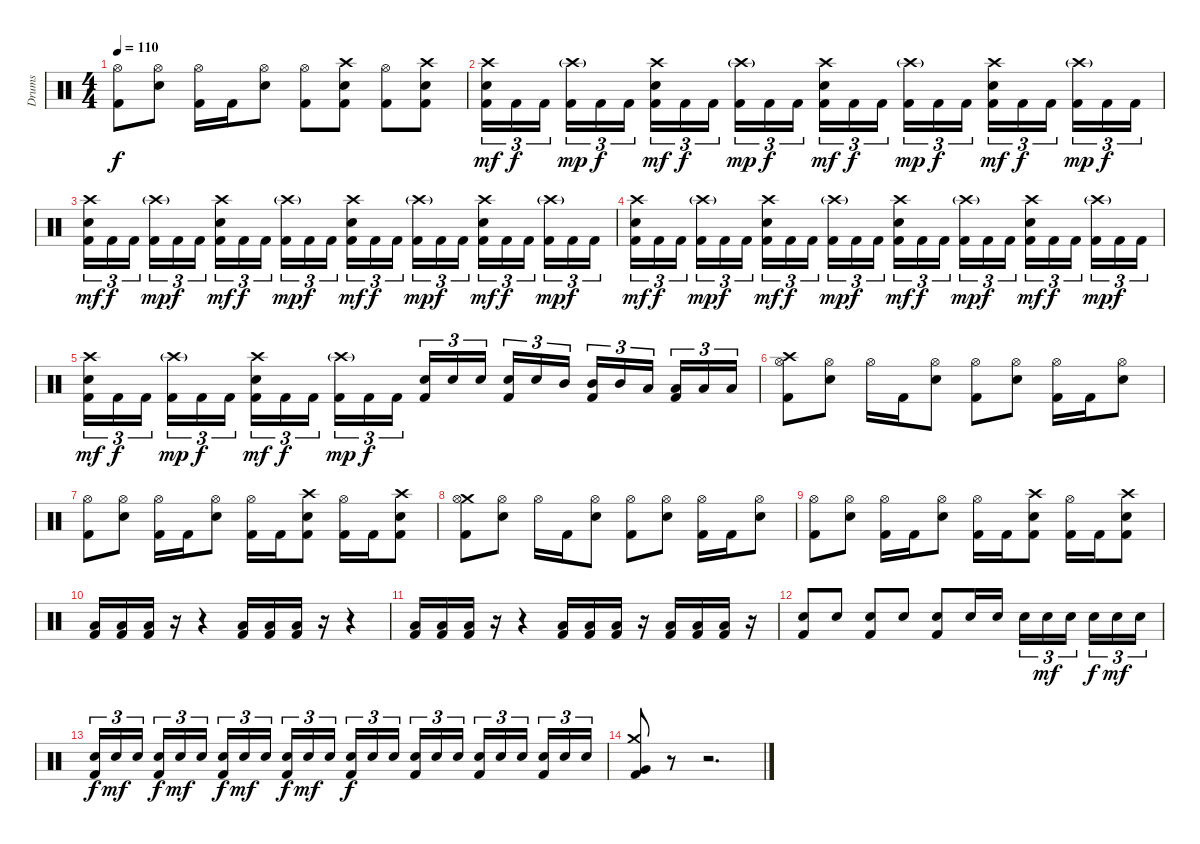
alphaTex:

\track ("Drums" "Drums") {instrument percussion}
\staff {score}
\articulation defaults
\ts (4 4)
\tempo 110
\clef neutral
\ks c
("Hi-Hat (open)" "Kick (hit) 2").8{dy f} ("Hi-Hat (open)" "Electric Snare (hit)").8 ("Hi-Hat (open)" "Kick (hit) 2").16 "Kick (hit) 2".16 ("Hi-Hat (open)" "Electric Snare (hit)").8 ("Hi-Hat (open)" "Kick (hit) 2").8 ("Crash high (hit)" "Electric Snare (hit)" "Kick (hit) 2").8 ("Hi-Hat (open)" "Kick (hit) 2").8 ("Crash high (hit)" "Electric Snare (hit)" "Kick (hit) 2").8 |
("Crash high (hit)" "Electric Snare (hit)" "Kick (hit) 2").16{tu (3 2) dy mf} "Kick (hit) 2".16{tu (3 2) dy f} "Kick (hit) 2".16{tu (3 2)} ("Crash high (hit)"{g} "Kick (hit) 2").16{tu (3 2) dy mp} "Kick (hit) 2".16{tu (3 2) dy f} "Kick (hit) 2".16{tu (3 2)} ("Crash high (hit)" "Electric Snare (hit)" "Kick (hit) 2").16{tu (3 2) dy mf} "Kick (hit) 2".16{tu (3 2) dy f} "Kick (hit) 2".16{tu (3 2)} ("Crash high (hit)"{g} "Kick (hit) 2").16{tu (3 2) dy mp} "Kick (hit) 2".16{tu (3 2) dy f} "Kick (hit) 2".16{tu (3 2)} ("Crash high (hit)" "Electric Snare (hit)" "Kick (hit) 2").16{tu (3 2) dy mf} "Kick (hit) 2".16{tu (3 2) dy f} "Kick (hit) 2".16{tu (3 2)} ("Crash high (hit)"{g} "Kick (hit) 2").16{tu (3 2) dy mp} "Kick (hit) 2".16{tu (3 2) dy f} "Kick (hit) 2".16{tu (3 2)} ("Crash high (hit)" "Electric Snare (hit)" "Kick (hit) 2").16{tu (3 2) dy mf} "Kick (hit) 2".16{tu (3 2) dy f} "Kick (hit) 2".16{tu (3 2)} ("Crash high (hit)"{g} "Kick (hit) 2").16{tu (3 2) dy mp} "Kick (hit) 2".16{tu (3 2) dy f} "Kick (hit) 2".16{tu (3 2)} |
("Crash high (hit)" "Electric Snare (hit)" "Kick (hit) 2").16{tu (3 2) dy mf} "Kick (hit) 2".16{tu (3 2) dy f} "Kick (hit) 2".16{tu (3 2)} ("Crash high (hit)"{g} "Kick (hit) 2").16{tu (3 2) dy mp} "Kick (hit) 2".16{tu (3 2) dy f} "Kick (hit) 2".16{tu (3 2)} ("Crash high (hit)" "Electric Snare (hit)" "Kick (hit) 2").16{tu (3 2) dy mf} "Kick (hit) 2".16{tu (3 2) dy f} "Kick (hit) 2".16{tu (3 2)} ("Crash high (hit)"{g} "Kick (hit) 2").16{tu (3 2) dy mp} "Kick (hit) 2".16{tu (3 2) dy f} "Kick (hit) 2".16{tu (3 2)} ("Crash high (hit)" "Electric Snare (hit)" "Kick (hit) 2").16{tu (3 2) dy mf} "Kick (hit) 2".16{tu (3 2) dy f} "Kick (hit) 2".16{tu (3 2)} ("Crash high (hit)"{g} "Kick (hit) 2").16{tu (3 2) dy mp} "Kick (hit) 2".16{tu (3 2) dy f} "Kick (hit) 2".16{tu (3 2)} ("Crash high (hit)" "Electric Snare (hit)" "Kick (hit) 2").16{tu (3 2) dy mf} "Kick (hit) 2".16{tu (3 2) dy f} "Kick (hit) 2".16{tu (3 2)} ("Crash high (hit)"{g} "Kick (hit) 2").16{tu (3 2) dy mp} "Kick (hit) 2".16{tu (3 2) dy f} "Kick (hit) 2".16{tu (3 2)} |
("Crash high (hit)" "Electric Snare (hit)" "Kick (hit) 2").16{tu (3 2) dy mf} "Kick (hit) 2".16{tu (3 2) dy f} "Kick (hit) 2".16{tu (3 2)} ("Crash high (hit)"{g} "Kick (hit) 2").16{tu (3 2) dy mp} "Kick (hit) 2".16{tu (3 2) dy f} "Kick (hit) 2".16{tu (3 2)} ("Crash high (hit)" "Electric Snare (hit)" "Kick (hit) 2").16{tu (3 2) dy mf} "Kick (hit) 2".16{tu (3 2) dy f} "Kick (hit) 2".16{tu (3 2)} ("Crash high (hit)"{g} "Kick (hit) 2").16{tu (3 2) dy mp} "Kick (hit) 2".16{tu (3 2) dy f} "Kick (hit) 2".16{tu (3 2)} ("Crash high (hit)" "Electric Snare (hit)" "Kick (hit) 2").16{tu (3 2) dy mf} "Kick (hit) 2".16{tu (3 2) dy f} "Kick (hit) 2".16{tu (3 2)} ("Crash high (hit)"{g} "Kick (hit) 2").16{tu (3 2) dy mp} "Kick (hit) 2".16{tu (3 2) dy f} "Kick (hit) 2".16{tu (3 2)} ("Crash high (hit)" "Electric Snare (hit)" "Kick (hit) 2").16{tu (3 2) dy mf} "Kick (hit) 2".16{tu (3 2) dy f} "Kick (hit) 2".16{tu (3 2)} ("Crash high (hit)"{g} "Kick (hit) 2").16{tu (3 2) dy mp} "Kick (hit) 2".16{tu (3 2) dy f} "Kick (hit) 2".16{tu (3 2)} |
("Crash high (hit)" "Electric Snare (hit)" "Kick (hit) 2").16{tu (3 2) dy mf} "Kick (hit) 2".16{tu (3 2) dy f} "Kick (hit) 2".16{tu (3 2)} ("Crash high (hit)"{g} "Kick (hit) 2").16{tu (3 2) dy mp} "Kick (hit) 2".16{tu (3 2) dy f} "Kick (hit) 2".16{tu (3 2)} ("Crash high (hit)" "Electric Snare (hit)" "Kick (hit) 2").16{tu (3 2) dy mf} "Kick (hit) 2".16{tu (3 2) dy f} "Kick (hit) 2".16{tu (3 2)} ("Crash high (hit)"{g} "Kick (hit) 2").16{tu (3 2) dy mp} "Kick (hit) 2".16{tu (3 2) dy f} "Kick (hit) 2".16{tu (3 2)} ("Electric Snare (hit)" "Kick (hit) 2").16{tu (3 2)} "Electric Snare (hit)".16{tu (3 2)} "Electric Snare (hit)".16{tu (3 2)} ("Electric Snare (hit)" "Kick (hit) 2").16{tu (3 2)} "Electric Snare (hit)".16{tu (3 2)} "Mid Tom (hit)".16{tu (3 2)} ("Mid Tom (hit)" "Kick (hit) 2").16{tu (3 2)} "Mid Tom (hit)".16{tu (3 2)} "Low Tom (hit)".16{tu (3 2)} ("Low Tom (hit)" "Kick (hit) 2").16{tu (3 2)} "Low Tom (hit)".16{tu (3 2)} "Low Tom (hit)".16{tu (3 2)} |
("Crash high (hit)" "Hi-Hat (open)" "Kick (hit) 2").8 ("Hi-Hat (open)" "Electric Snare (hit)").8 "Hi-Hat (open)".16 "Kick (hit) 2".16 ("Hi-Hat (open)" "Electric Snare (hit)").8 ("Hi-Hat (open)" "Kick (hit) 2").8 ("Hi-Hat (open)" "Electric Snare (hit)").8 ("Hi-Hat (open)" "Kick (hit) 2").16 "Kick (hit) 2".16 ("Hi-Hat (open)" "Electric Snare (hit)").8 |
("Hi-Hat (open)" "Kick (hit) 2").8 ("Hi-Hat (open)" "Electric Snare (hit)").8 ("Hi-Hat (open)" "Kick (hit) 2").16 "Kick (hit) 2".16 ("Hi-Hat (open)" "Electric Snare (hit)").8 ("Hi-Hat (open)" "Kick (hit) 2").16 "Kick (hit) 2".16 ("Crash high (hit)" "Electric Snare (hit)" "Kick (hit) 2").8 ("Hi-Hat (open)" "Kick (hit) 2").16 "Kick (hit) 2".16 ("Crash high (hit)" "Electric Snare (hit)" "Kick (hit) 2").8 |
("Crash medium (hit)" "Hi-Hat (open)" "Kick (hit) 2").8 ("Hi-Hat (open)" "Electric Snare (hit)").8 "Hi-Hat (open)".16 "Kick (hit) 2".16 ("Hi-Hat (open)" "Electric Snare (hit)").8 ("Hi-Hat (open)" "Kick (hit) 2").8 ("Hi-Hat (open)" "Electric Snare (hit)").8 ("Hi-Hat (open)" "Kick (hit) 2").16 "Kick (hit) 2".16 ("Hi-Hat (open)" "Electric Snare (hit)").8 |
("Hi-Hat (open)" "Kick (hit) 2").8 ("Hi-Hat (open)" "Electric Snare (hit)").8 ("Hi-Hat (open)" "Kick (hit) 2").16 "Kick (hit) 2".16 ("Hi-Hat (open)" "Electric Snare (hit)").8 ("Hi-Hat (open)" "Kick (hit) 2").16 "Kick (hit) 2".16 ("Crash high (hit)" "Electric Snare (hit)" "Kick (hit) 2").8 ("Hi-Hat (open)" "Kick (hit) 2").16 "Kick (hit) 2".16 ("Crash high (hit)" "Electric Snare (hit)" "Kick (hit) 2").8 |
("Low Floor Tom (hit)" "Kick (hit) 2").16 ("Low Floor Tom (hit)" "Kick (hit) 2").16 ("Low Floor Tom (hit)" "Kick (hit) 2").16 r.16 r.4 ("Low Floor Tom (hit)" "Kick (hit) 2").16 ("Low Floor Tom (hit)" "Kick (hit) 2").16 ("Low Floor Tom (hit)" "Kick (hit) 2").16 r.16 r.4 |
("Low Floor Tom (hit)" "Kick (hit) 2").16 ("Low Floor Tom (hit)" "Kick (hit) 2").16 ("Low Floor Tom (hit)" "Kick (hit) 2").16 r.16 r.4 ("Low Floor Tom (hit)" "Kick (hit) 2").16 ("Low Floor Tom (hit)" "Kick (hit) 2").16 ("Low Floor Tom (hit)" "Kick (hit) 2").16 r.16 ("Low Floor Tom (hit)" "Kick (hit) 2").16 ("Low Floor Tom (hit)" "Kick (hit) 2").16 ("Low Floor Tom (hit)" "Kick (hit) 2").16 r.16 |
("Electric Snare (hit)" "Kick (hit) 2").8 "Electric Snare (hit)".8 ("Electric Snare (hit)" "Kick (hit) 2").8 "Electric Snare (hit)".8 ("Electric Snare (hit)" "Kick (hit) 2").8 "Electric Snare (hit)".16 "Electric Snare (hit)".16 "Electric Snare (hit)".16{tu (3 2)} "Electric Snare (hit)".16{tu (3 2) dy mf} "Electric Snare (hit)".16{tu (3 2)} "Electric Snare (hit)".16{tu (3 2) dy f} "Electric Snare (hit)".16{tu (3 2) dy mf} "Electric Snare (hit)".16{tu (3 2)} |
("Electric Snare (hit)" "Kick (hit) 2").16{tu (3 2) dy f} "Electric Snare (hit)".16{tu (3 2) dy mf} "Electric Snare (hit)".16{tu (3 2)} ("Electric Snare (hit)" "Kick (hit) 2").16{tu (3 2) dy f} "Electric Snare (hit)".16{tu (3 2) dy mf} "Electric Snare (hit)".16{tu (3 2)} ("Electric Snare (hit)" "Kick (hit) 2").16{tu (3 2) dy f} "Electric Snare (hit)".16{tu (3 2) dy mf} "Electric Snare (hit)".16{tu (3 2)} ("Electric Snare (hit)" "Kick (hit) 2").16{tu (3 2) dy f} "Electric Snare (hit)".16{tu (3 2) dy mf} "Electric Snare (hit)".16{tu (3 2)} ("Electric Snare (hit)" "Kick (hit) 2").16{tu (3 2) dy f} "Electric Snare (hit)".16{tu (3 2)} "Electric Snare (hit)".16{tu (3 2)} ("Electric Snare (hit)" "Kick (hit) 2").16{tu (3 2)} "Electric Snare (hit)".16{tu (3 2)} "Electric Snare (hit)".16{tu (3 2)} ("Electric Snare (hit)" "Kick (hit) 2").16{tu (3 2)} "Electric Snare (hit)".16{tu (3 2)} "Electric Snare (hit)".16{tu (3 2)} ("Electric Snare (hit)" "Kick (hit) 2").16{tu (3 2)} "Electric Snare (hit)".16{tu (3 2)} "Electric Snare (hit)".16{tu (3 2)} |
("Crash medium (hit)" "Very Low Tom (hit)" "Kick (hit) 2").8 r.8{volume 0} r.2{d}
